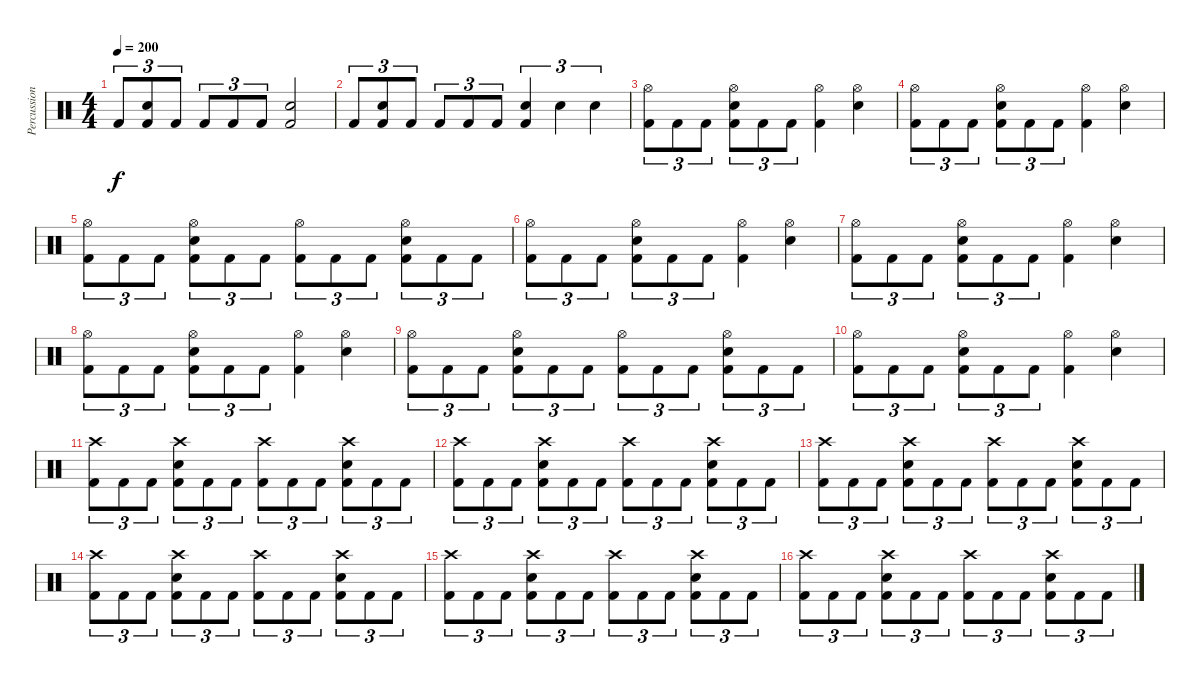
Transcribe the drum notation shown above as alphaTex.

\track ("Percussion" "Percussion") {instrument percussion}
\staff {score}
\articulation defaults
\ts (4 4)
\tempo 200
\clef neutral
\ks c "Kick (hit) 2".8{tu (3 2) dy f}
("Snare (hit) 2" "Kick (hit) 2").8{tu (3 2)} "Kick (hit) 2".8{tu (3 2)} "Kick (hit) 2".8{tu (3 2)} "Kick (hit) 2".8{tu (3 2)} "Kick (hit) 2".8{tu (3 2)} ("Snare (hit) 2" "Kick (hit) 2").2 |
"Kick (hit) 2".8{tu (3 2)} ("Snare (hit) 2" "Kick (hit) 2").8{tu (3 2)} "Kick (hit) 2".8{tu (3 2)} "Kick (hit) 2".8{tu (3 2)} "Kick (hit) 2".8{tu (3 2)} "Kick (hit) 2".8{tu (3 2)} ("Snare (hit) 2" "Kick (hit) 2").4{tu (3 2)} "Snare (hit) 2".4{tu (3 2)} "Snare (hit) 2".4{tu (3 2)} |
("Hi-Hat (open)" "Kick (hit) 2").8{tu (3 2)} "Kick (hit) 2".8{tu (3 2)} "Kick (hit) 2".8{tu (3 2)} ("Hi-Hat (open)" "Snare (hit) 2" "Kick (hit) 2").8{tu (3 2)} "Kick (hit) 2".8{tu (3 2)} "Kick (hit) 2".8{tu (3 2)} ("Hi-Hat (open)" "Kick (hit) 2").4 ("Hi-Hat (open)" "Snare (hit) 2").4 |
("Hi-Hat (open)" "Kick (hit) 2").8{tu (3 2)} "Kick (hit) 2".8{tu (3 2)} "Kick (hit) 2".8{tu (3 2)} ("Hi-Hat (open)" "Snare (hit) 2" "Kick (hit) 2").8{tu (3 2)} "Kick (hit) 2".8{tu (3 2)} "Kick (hit) 2".8{tu (3 2)} ("Hi-Hat (open)" "Kick (hit) 2").4 ("Hi-Hat (open)" "Snare (hit) 2").4 |
("Hi-Hat (open)" "Kick (hit) 2").8{tu (3 2)} "Kick (hit) 2".8{tu (3 2)} "Kick (hit) 2".8{tu (3 2)} ("Hi-Hat (open)" "Snare (hit) 2" "Kick (hit) 2").8{tu (3 2)} "Kick (hit) 2".8{tu (3 2)} "Kick (hit) 2".8{tu (3 2)} ("Hi-Hat (open)" "Kick (hit) 2").8{tu (3 2)} "Kick (hit) 2".8{tu (3 2)} "Kick (hit) 2".8{tu (3 2)} ("Hi-Hat (open)" "Snare (hit) 2" "Kick (hit) 2").8{tu (3 2)} "Kick (hit) 2".8{tu (3 2)} "Kick (hit) 2".8{tu (3 2)} |
("Hi-Hat (open)" "Kick (hit) 2").8{tu (3 2)} "Kick (hit) 2".8{tu (3 2)} "Kick (hit) 2".8{tu (3 2)} ("Hi-Hat (open)" "Snare (hit) 2" "Kick (hit) 2").8{tu (3 2)} "Kick (hit) 2".8{tu (3 2)} "Kick (hit) 2".8{tu (3 2)} ("Hi-Hat (open)" "Kick (hit) 2").4 ("Hi-Hat (open)" "Snare (hit) 2").4 |
("Hi-Hat (open)" "Kick (hit) 2").8{tu (3 2)} "Kick (hit) 2".8{tu (3 2)} "Kick (hit) 2".8{tu (3 2)} ("Hi-Hat (open)" "Snare (hit) 2" "Kick (hit) 2").8{tu (3 2)} "Kick (hit) 2".8{tu (3 2)} "Kick (hit) 2".8{tu (3 2)} ("Hi-Hat (open)" "Kick (hit) 2").4 ("Hi-Hat (open)" "Snare (hit) 2").4 |
("Hi-Hat (open)" "Kick (hit) 2").8{tu (3 2)} "Kick (hit) 2".8{tu (3 2)} "Kick (hit) 2".8{tu (3 2)} ("Hi-Hat (open)" "Snare (hit) 2" "Kick (hit) 2").8{tu (3 2)} "Kick (hit) 2".8{tu (3 2)} "Kick (hit) 2".8{tu (3 2)} ("Hi-Hat (open)" "Kick (hit) 2").4 ("Hi-Hat (open)" "Snare (hit) 2").4 |
("Hi-Hat (open)" "Kick (hit) 2").8{tu (3 2)} "Kick (hit) 2".8{tu (3 2)} "Kick (hit) 2".8{tu (3 2)} ("Hi-Hat (open)" "Snare (hit) 2" "Kick (hit) 2").8{tu (3 2)} "Kick (hit) 2".8{tu (3 2)} "Kick (hit) 2".8{tu (3 2)} ("Hi-Hat (open)" "Kick (hit) 2").8{tu (3 2)} "Kick (hit) 2".8{tu (3 2)} "Kick (hit) 2".8{tu (3 2)} ("Hi-Hat (open)" "Snare (hit) 2" "Kick (hit) 2").8{tu (3 2)} "Kick (hit) 2".8{tu (3 2)} "Kick (hit) 2".8{tu (3 2)} |
("Hi-Hat (open)" "Kick (hit) 2").8{tu (3 2)} "Kick (hit) 2".8{tu (3 2)} "Kick (hit) 2".8{tu (3 2)} ("Hi-Hat (open)" "Snare (hit) 2" "Kick (hit) 2").8{tu (3 2)} "Kick (hit) 2".8{tu (3 2)} "Kick (hit) 2".8{tu (3 2)} ("Hi-Hat (open)" "Kick (hit) 2").4 ("Hi-Hat (open)" "Snare (hit) 2").4 |
("Crash high (hit)" "Kick (hit) 2").8{tu (3 2)} "Kick (hit) 2".8{tu (3 2)} "Kick (hit) 2".8{tu (3 2)} ("Crash high (hit)" "Snare (hit) 2" "Kick (hit) 2").8{tu (3 2)} "Kick (hit) 2".8{tu (3 2)} "Kick (hit) 2".8{tu (3 2)} ("Crash high (hit)" "Kick (hit) 2").8{tu (3 2)} "Kick (hit) 2".8{tu (3 2)} "Kick (hit) 2".8{tu (3 2)} ("Crash high (hit)" "Snare (hit) 2" "Kick (hit) 2").8{tu (3 2)} "Kick (hit) 2".8{tu (3 2)} "Kick (hit) 2".8{tu (3 2)} |
("Crash high (hit)" "Kick (hit) 2").8{tu (3 2)} "Kick (hit) 2".8{tu (3 2)} "Kick (hit) 2".8{tu (3 2)} ("Crash high (hit)" "Snare (hit) 2" "Kick (hit) 2").8{tu (3 2)} "Kick (hit) 2".8{tu (3 2)} "Kick (hit) 2".8{tu (3 2)} ("Crash high (hit)" "Kick (hit) 2").8{tu (3 2)} "Kick (hit) 2".8{tu (3 2)} "Kick (hit) 2".8{tu (3 2)} ("Crash high (hit)" "Snare (hit) 2" "Kick (hit) 2").8{tu (3 2)} "Kick (hit) 2".8{tu (3 2)} "Kick (hit) 2".8{tu (3 2)} |
("Crash high (hit)" "Kick (hit) 2").8{tu (3 2)} "Kick (hit) 2".8{tu (3 2)} "Kick (hit) 2".8{tu (3 2)} ("Crash high (hit)" "Snare (hit) 2" "Kick (hit) 2").8{tu (3 2)} "Kick (hit) 2".8{tu (3 2)} "Kick (hit) 2".8{tu (3 2)} ("Crash high (hit)" "Kick (hit) 2").8{tu (3 2)} "Kick (hit) 2".8{tu (3 2)} "Kick (hit) 2".8{tu (3 2)} ("Crash high (hit)" "Snare (hit) 2" "Kick (hit) 2").8{tu (3 2)} "Kick (hit) 2".8{tu (3 2)} "Kick (hit) 2".8{tu (3 2)} |
("Crash high (hit)" "Kick (hit) 2").8{tu (3 2)} "Kick (hit) 2".8{tu (3 2)} "Kick (hit) 2".8{tu (3 2)} ("Crash high (hit)" "Snare (hit) 2" "Kick (hit) 2").8{tu (3 2)} "Kick (hit) 2".8{tu (3 2)} "Kick (hit) 2".8{tu (3 2)} ("Crash high (hit)" "Kick (hit) 2").8{tu (3 2)} "Kick (hit) 2".8{tu (3 2)} "Kick (hit) 2".8{tu (3 2)} ("Crash high (hit)" "Snare (hit) 2" "Kick (hit) 2").8{tu (3 2)} "Kick (hit) 2".8{tu (3 2)} "Kick (hit) 2".8{tu (3 2)} |
("Crash high (hit)" "Kick (hit) 2").8{tu (3 2)} "Kick (hit) 2".8{tu (3 2)} "Kick (hit) 2".8{tu (3 2)} ("Crash high (hit)" "Snare (hit) 2" "Kick (hit) 2").8{tu (3 2)} "Kick (hit) 2".8{tu (3 2)} "Kick (hit) 2".8{tu (3 2)} ("Crash high (hit)" "Kick (hit) 2").8{tu (3 2)} "Kick (hit) 2".8{tu (3 2)} "Kick (hit) 2".8{tu (3 2)} ("Crash high (hit)" "Snare (hit) 2" "Kick (hit) 2").8{tu (3 2)} "Kick (hit) 2".8{tu (3 2)} "Kick (hit) 2".8{tu (3 2)} |
("Crash high (hit)" "Kick (hit) 2").8{tu (3 2)} "Kick (hit) 2".8{tu (3 2)} "Kick (hit) 2".8{tu (3 2)} ("Crash high (hit)" "Snare (hit) 2" "Kick (hit) 2").8{tu (3 2)} "Kick (hit) 2".8{tu (3 2)} "Kick (hit) 2".8{tu (3 2)} ("Crash high (hit)" "Kick (hit) 2").8{tu (3 2)} "Kick (hit) 2".8{tu (3 2)} "Kick (hit) 2".8{tu (3 2)} ("Crash high (hit)" "Snare (hit) 2" "Kick (hit) 2").8{tu (3 2)} "Kick (hit) 2".8{tu (3 2)} "Kick (hit) 2".8{tu (3 2)}
